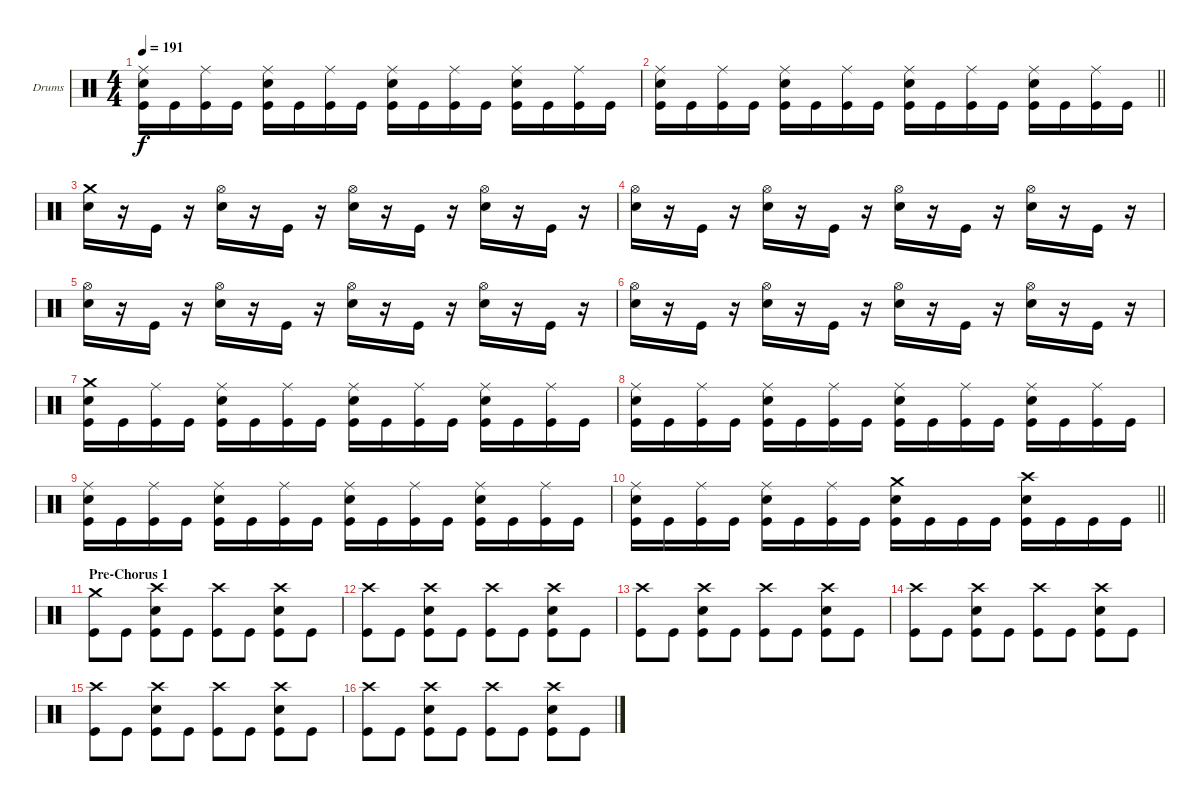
\bracketExtendMode groupsimilarinstruments
\firstSystemTrackNameOrientation horizontal
\otherSystemsTrackNameOrientation horizontal
\track ("Drumkit" "Drums") {instrument percussion}
\staff {score}
\articulation defaults
\ts (4 4)
\tempo 191
\clef neutral
\ks c
("Ride (middle)" "Snare (hit) 2" "Kick (hit)").16{dy f} "Kick (hit)".16 ("Ride (middle)" "Kick (hit)").16 "Kick (hit)".16 ("Ride (middle)" "Snare (hit) 2" "Kick (hit)").16 "Kick (hit)".16 ("Ride (middle)" "Kick (hit)").16 "Kick (hit)".16 ("Ride (middle)" "Snare (hit) 2" "Kick (hit)").16 "Kick (hit)".16 ("Ride (middle)" "Kick (hit)").16 "Kick (hit)".16 ("Ride (middle)" "Snare (hit) 2" "Kick (hit)").16 "Kick (hit)".16 ("Ride (middle)" "Kick (hit)").16 "Kick (hit)".16 |
\barLineRight lightlight
("Ride (middle)" "Snare (hit) 2" "Kick (hit)").16 "Kick (hit)".16 ("Ride (middle)" "Kick (hit)").16 "Kick (hit)".16 ("Ride (middle)" "Snare (hit) 2" "Kick (hit)").16 "Kick (hit)".16 ("Ride (middle)" "Kick (hit)").16 "Kick (hit)".16 ("Ride (middle)" "Snare (hit) 2" "Kick (hit)").16 "Kick (hit)".16 ("Ride (middle)" "Kick (hit)").16 "Kick (hit)".16 ("Ride (middle)" "Snare (hit) 2" "Kick (hit)").16 "Kick (hit)".16 ("Ride (middle)" "Kick (hit)").16 "Kick (hit)".16 |
\section ("" "")
("Crash medium (hit)" "Snare (hit) 2").16 r.16 "Kick (hit)".16 r.16 ("Hi-Hat (open)" "Snare (hit) 2").16 r.16 "Kick (hit)".16 r.16 ("Hi-Hat (open)" "Snare (hit) 2").16 r.16 "Kick (hit)".16 r.16 ("Hi-Hat (open)" "Snare (hit) 2").16 r.16 "Kick (hit)".16 r.16 |
("Hi-Hat (open)" "Snare (hit) 2").16 r.16 "Kick (hit)".16 r.16 ("Hi-Hat (open)" "Snare (hit) 2").16 r.16 "Kick (hit)".16 r.16 ("Hi-Hat (open)" "Snare (hit) 2").16 r.16 "Kick (hit)".16 r.16 ("Hi-Hat (open)" "Snare (hit) 2").16 r.16 "Kick (hit)".16 r.16 |
("Hi-Hat (open)" "Snare (hit) 2").16 r.16 "Kick (hit)".16 r.16 ("Hi-Hat (open)" "Snare (hit) 2").16 r.16 "Kick (hit)".16 r.16 ("Hi-Hat (open)" "Snare (hit) 2").16 r.16 "Kick (hit)".16 r.16 ("Hi-Hat (open)" "Snare (hit) 2").16 r.16 "Kick (hit)".16 r.16 |
("Hi-Hat (open)" "Snare (hit) 2").16 r.16 "Kick (hit)".16 r.16 ("Hi-Hat (open)" "Snare (hit) 2").16 r.16 "Kick (hit)".16 r.16 ("Hi-Hat (open)" "Snare (hit) 2").16 r.16 "Kick (hit)".16 r.16 ("Hi-Hat (open)" "Snare (hit) 2").16 r.16 "Kick (hit)".16 r.16 |
("Crash medium (hit)" "Snare (hit) 2" "Kick (hit)").16 "Kick (hit)".16 ("Ride (middle)" "Kick (hit)").16 "Kick (hit)".16 ("Ride (middle)" "Snare (hit) 2" "Kick (hit)").16 "Kick (hit)".16 ("Ride (middle)" "Kick (hit)").16 "Kick (hit)".16 ("Ride (middle)" "Snare (hit) 2" "Kick (hit)").16 "Kick (hit)".16 ("Ride (middle)" "Kick (hit)").16 "Kick (hit)".16 ("Ride (middle)" "Snare (hit) 2" "Kick (hit)").16 "Kick (hit)".16 ("Ride (middle)" "Kick (hit)").16 "Kick (hit)".16 |
("Ride (middle)" "Snare (hit) 2" "Kick (hit)").16 "Kick (hit)".16 ("Ride (middle)" "Kick (hit)").16 "Kick (hit)".16 ("Ride (middle)" "Snare (hit) 2" "Kick (hit)").16 "Kick (hit)".16 ("Ride (middle)" "Kick (hit)").16 "Kick (hit)".16 ("Ride (middle)" "Snare (hit) 2" "Kick (hit)").16 "Kick (hit)".16 ("Ride (middle)" "Kick (hit)").16 "Kick (hit)".16 ("Ride (middle)" "Snare (hit) 2" "Kick (hit)").16 "Kick (hit)".16 ("Ride (middle)" "Kick (hit)").16 "Kick (hit)".16 |
("Ride (middle)" "Snare (hit) 2" "Kick (hit)").16 "Kick (hit)".16 ("Ride (middle)" "Kick (hit)").16 "Kick (hit)".16 ("Ride (middle)" "Snare (hit) 2" "Kick (hit)").16 "Kick (hit)".16 ("Ride (middle)" "Kick (hit)").16 "Kick (hit)".16 ("Ride (middle)" "Snare (hit) 2" "Kick (hit)").16 "Kick (hit)".16 ("Ride (middle)" "Kick (hit)").16 "Kick (hit)".16 ("Ride (middle)" "Snare (hit) 2" "Kick (hit)").16 "Kick (hit)".16 ("Ride (middle)" "Kick (hit)").16 "Kick (hit)".16 |
\barLineRight lightlight
("Ride (middle)" "Snare (hit) 2" "Kick (hit)").16 "Kick (hit)".16 ("Ride (middle)" "Kick (hit)").16 "Kick (hit)".16 ("Ride (middle)" "Snare (hit) 2" "Kick (hit)").16 "Kick (hit)".16 ("Ride (middle)" "Kick (hit)").16 "Kick (hit)".16 ("Crash medium (hit)" "Snare (hit) 2" "Kick (hit)").16 "Kick (hit)".16 "Kick (hit)".16 "Kick (hit)".16 ("Crash high (hit)" "Snare (hit) 2" "Kick (hit)").16 "Kick (hit)".16 "Kick (hit)".16 "Kick (hit)".16 |
\section ("" "Pre-Chorus 1")
("Crash medium (hit)" "Kick (hit)").8 "Kick (hit)".8 ("Crash high (hit)" "Snare (hit) 2" "Kick (hit)").8 "Kick (hit)".8 ("Crash high (hit)" "Kick (hit)").8 "Kick (hit)".8 ("Crash high (hit)" "Snare (hit) 2" "Kick (hit)").8 "Kick (hit)".8 |
("Crash high (hit)" "Kick (hit)").8 "Kick (hit)".8 ("Crash high (hit)" "Snare (hit) 2" "Kick (hit)").8 "Kick (hit)".8 ("Crash high (hit)" "Kick (hit)").8 "Kick (hit)".8 ("Crash high (hit)" "Snare (hit) 2" "Kick (hit)").8 "Kick (hit)".8 |
("Crash high (hit)" "Kick (hit)").8 "Kick (hit)".8 ("Crash high (hit)" "Snare (hit) 2" "Kick (hit)").8 "Kick (hit)".8 ("Crash high (hit)" "Kick (hit)").8 "Kick (hit)".8 ("Crash high (hit)" "Snare (hit) 2" "Kick (hit)").8 "Kick (hit)".8 |
("Crash high (hit)" "Kick (hit)").8 "Kick (hit)".8 ("Crash high (hit)" "Snare (hit) 2" "Kick (hit)").8 "Kick (hit)".8 ("Crash high (hit)" "Kick (hit)").8 "Kick (hit)".8 ("Crash high (hit)" "Snare (hit) 2" "Kick (hit)").8 "Kick (hit)".8 |
("Crash high (hit)" "Kick (hit)").8 "Kick (hit)".8 ("Crash high (hit)" "Snare (hit) 2" "Kick (hit)").8 "Kick (hit)".8 ("Crash high (hit)" "Kick (hit)").8 "Kick (hit)".8 ("Crash high (hit)" "Snare (hit) 2" "Kick (hit)").8 "Kick (hit)".8 |
("Crash high (hit)" "Kick (hit)").8 "Kick (hit)".8 ("Crash high (hit)" "Snare (hit) 2" "Kick (hit)").8 "Kick (hit)".8 ("Crash high (hit)" "Kick (hit)").8 "Kick (hit)".8 ("Crash high (hit)" "Snare (hit) 2" "Kick (hit)").8 "Kick (hit)".8
